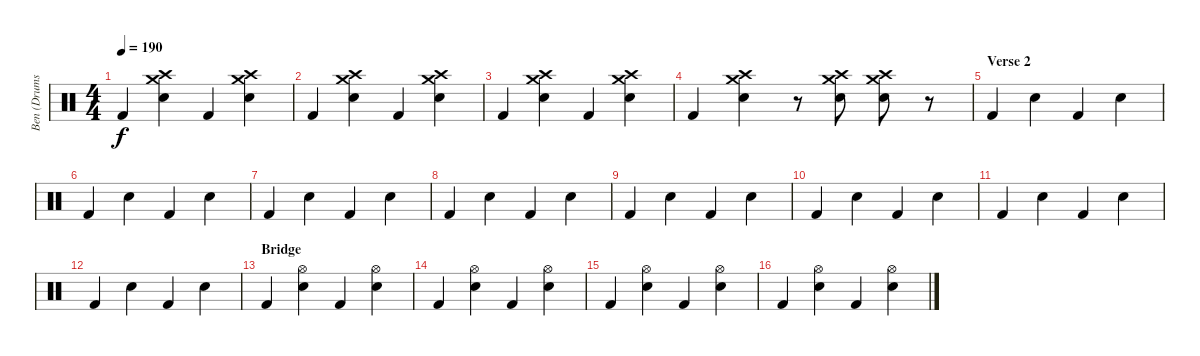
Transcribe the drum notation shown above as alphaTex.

\track ("Ben (Drums)" "Ben (Drums") {instrument percussion}
\staff {score}
\articulation defaults
\ts (4 4)
\tempo 190
\clef neutral
\ks c "Kick (hit) 2".4{dy f}
("Snare (hit) 2" "Crash medium (hit)" "Crash high (hit)").4 "Kick (hit) 2".4 ("Snare (hit) 2" "Crash medium (hit)" "Crash high (hit)").4 |
"Kick (hit) 2".4 ("Snare (hit) 2" "Crash medium (hit)" "Crash high (hit)").4 "Kick (hit) 2".4 ("Snare (hit) 2" "Crash medium (hit)" "Crash high (hit)").4 |
"Kick (hit) 2".4 ("Snare (hit) 2" "Crash medium (hit)" "Crash high (hit)").4 "Kick (hit) 2".4 ("Snare (hit) 2" "Crash medium (hit)" "Crash high (hit)").4 |
"Kick (hit) 2".4 ("Snare (hit) 2" "Crash medium (hit)" "Crash high (hit)").4 r.8 ("Snare (hit) 2" "Crash medium (hit)" "Crash high (hit)").8 ("Snare (hit) 2" "Crash medium (hit)" "Crash high (hit)").8 r.8 |
\section ("" "Verse 2")
"Kick (hit) 2".4{volume 12} "Snare (hit) 2".4 "Kick (hit) 2".4 "Snare (hit) 2".4 |
"Kick (hit) 2".4 "Snare (hit) 2".4 "Kick (hit) 2".4 "Snare (hit) 2".4 |
"Kick (hit) 2".4 "Snare (hit) 2".4 "Kick (hit) 2".4 "Snare (hit) 2".4 |
"Kick (hit) 2".4 "Snare (hit) 2".4 "Kick (hit) 2".4 "Snare (hit) 2".4 |
"Kick (hit) 2".4 "Snare (hit) 2".4 "Kick (hit) 2".4 "Snare (hit) 2".4 |
"Kick (hit) 2".4 "Snare (hit) 2".4 "Kick (hit) 2".4 "Snare (hit) 2".4 |
"Kick (hit) 2".4 "Snare (hit) 2".4 "Kick (hit) 2".4 "Snare (hit) 2".4 |
"Kick (hit) 2".4 "Snare (hit) 2".4 "Kick (hit) 2".4 "Snare (hit) 2".4 |
\section ("" "Bridge")
"Kick (hit) 2".4{volume 14} ("Snare (hit) 2" "Hi-Hat (open)").4 "Kick (hit) 2".4 ("Snare (hit) 2" "Hi-Hat (open)").4 |
"Kick (hit) 2".4 ("Snare (hit) 2" "Hi-Hat (open)").4 "Kick (hit) 2".4 ("Snare (hit) 2" "Hi-Hat (open)").4 |
"Kick (hit) 2".4 ("Snare (hit) 2" "Hi-Hat (open)").4 "Kick (hit) 2".4 ("Snare (hit) 2" "Hi-Hat (open)").4 |
"Kick (hit) 2".4 ("Snare (hit) 2" "Hi-Hat (open)").4 "Kick (hit) 2".4 ("Snare (hit) 2" "Hi-Hat (open)").4
